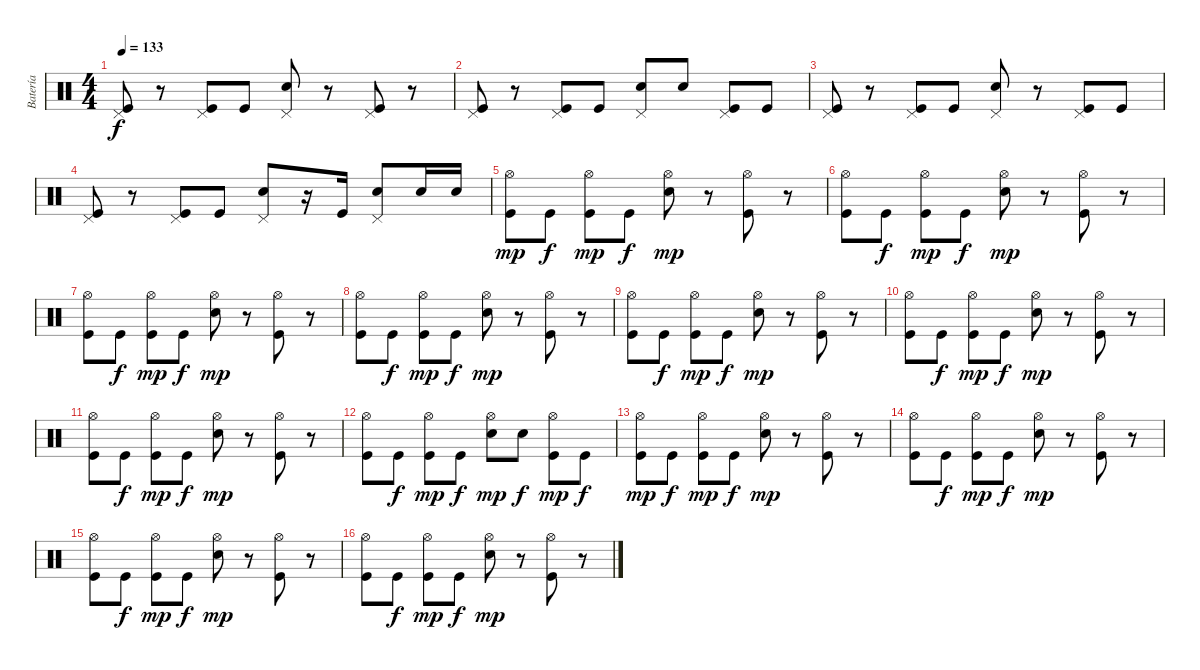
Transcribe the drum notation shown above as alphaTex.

\track ("Batería" "Batería") {instrument percussion}
\staff {score}
\articulation defaults
\ts (4 4)
\tempo 133
\clef neutral
\ks c
("Pedal Hi-Hat (hit)" "Kick (hit)").8{dy f} r.8 ("Pedal Hi-Hat (hit)" "Kick (hit)").8 "Kick (hit)".8 ("Pedal Hi-Hat (hit)" "Snare (hit) 2").8 r.8 ("Pedal Hi-Hat (hit)" "Kick (hit)").8 r.8 |
("Pedal Hi-Hat (hit)" "Kick (hit)").8 r.8 ("Pedal Hi-Hat (hit)" "Kick (hit)").8 "Kick (hit)".8 ("Pedal Hi-Hat (hit)" "Snare (hit) 2").8 "Snare (hit) 2".8 ("Pedal Hi-Hat (hit)" "Kick (hit)").8 "Kick (hit)".8 |
("Pedal Hi-Hat (hit)" "Kick (hit)").8 r.8 ("Pedal Hi-Hat (hit)" "Kick (hit)").8 "Kick (hit)".8 ("Pedal Hi-Hat (hit)" "Snare (hit) 2").8 r.8 ("Pedal Hi-Hat (hit)" "Kick (hit)").8 "Kick (hit)".8 |
("Pedal Hi-Hat (hit)" "Kick (hit)").8 r.8 ("Pedal Hi-Hat (hit)" "Kick (hit)").8 "Kick (hit)".8 ("Pedal Hi-Hat (hit)" "Snare (hit) 2").8 r.16 "Kick (hit)".16 ("Pedal Hi-Hat (hit)" "Snare (hit) 2").8 "Snare (hit) 2".16 "Snare (hit) 2".16 |
("Hi-Hat (open)" "Kick (hit)").8{dy mp} "Kick (hit)".8{dy f} ("Hi-Hat (open)" "Kick (hit)").8{dy mp} "Kick (hit)".8{dy f} ("Hi-Hat (open)" "Snare (hit) 2").8{dy mp} r.8 ("Hi-Hat (open)" "Kick (hit)").8 r.8 |
("Hi-Hat (open)" "Kick (hit)").8 "Kick (hit)".8{dy f} ("Hi-Hat (open)" "Kick (hit)").8{dy mp} "Kick (hit)".8{dy f} ("Hi-Hat (open)" "Snare (hit) 2").8{dy mp} r.8 ("Hi-Hat (open)" "Kick (hit)").8 r.8 |
("Hi-Hat (open)" "Kick (hit)").8 "Kick (hit)".8{dy f} ("Hi-Hat (open)" "Kick (hit)").8{dy mp} "Kick (hit)".8{dy f} ("Hi-Hat (open)" "Snare (hit) 2").8{dy mp} r.8 ("Hi-Hat (open)" "Kick (hit)").8 r.8 |
("Hi-Hat (open)" "Kick (hit)").8 "Kick (hit)".8{dy f} ("Hi-Hat (open)" "Kick (hit)").8{dy mp} "Kick (hit)".8{dy f} ("Hi-Hat (open)" "Snare (hit) 2").8{dy mp} r.8 ("Hi-Hat (open)" "Kick (hit)").8 r.8 |
("Hi-Hat (open)" "Kick (hit)").8 "Kick (hit)".8{dy f} ("Hi-Hat (open)" "Kick (hit)").8{dy mp} "Kick (hit)".8{dy f} ("Hi-Hat (open)" "Snare (hit) 2").8{dy mp} r.8 ("Hi-Hat (open)" "Kick (hit)").8 r.8 |
("Hi-Hat (open)" "Kick (hit)").8 "Kick (hit)".8{dy f} ("Hi-Hat (open)" "Kick (hit)").8{dy mp} "Kick (hit)".8{dy f} ("Hi-Hat (open)" "Snare (hit) 2").8{dy mp} r.8 ("Hi-Hat (open)" "Kick (hit)").8 r.8 |
("Hi-Hat (open)" "Kick (hit)").8 "Kick (hit)".8{dy f} ("Hi-Hat (open)" "Kick (hit)").8{dy mp} "Kick (hit)".8{dy f} ("Hi-Hat (open)" "Snare (hit) 2").8{dy mp} r.8 ("Hi-Hat (open)" "Kick (hit)").8 r.8 |
("Hi-Hat (open)" "Kick (hit)").8 "Kick (hit)".8{dy f} ("Hi-Hat (open)" "Kick (hit)").8{dy mp} "Kick (hit)".8{dy f} ("Hi-Hat (open)" "Snare (hit) 2").8{dy mp} "Snare (hit) 2".8{dy f} ("Hi-Hat (open)" "Kick (hit)").8{dy mp} "Kick (hit)".8{dy f} |
("Hi-Hat (open)" "Kick (hit)").8{dy mp} "Kick (hit)".8{dy f} ("Hi-Hat (open)" "Kick (hit)").8{dy mp} "Kick (hit)".8{dy f} ("Hi-Hat (open)" "Snare (hit) 2").8{dy mp} r.8 ("Hi-Hat (open)" "Kick (hit)").8 r.8 |
("Hi-Hat (open)" "Kick (hit)").8 "Kick (hit)".8{dy f} ("Hi-Hat (open)" "Kick (hit)").8{dy mp} "Kick (hit)".8{dy f} ("Hi-Hat (open)" "Snare (hit) 2").8{dy mp} r.8 ("Hi-Hat (open)" "Kick (hit)").8 r.8 |
("Hi-Hat (open)" "Kick (hit)").8 "Kick (hit)".8{dy f} ("Hi-Hat (open)" "Kick (hit)").8{dy mp} "Kick (hit)".8{dy f} ("Hi-Hat (open)" "Snare (hit) 2").8{dy mp} r.8 ("Hi-Hat (open)" "Kick (hit)").8 r.8 |
("Hi-Hat (open)" "Kick (hit)").8 "Kick (hit)".8{dy f} ("Hi-Hat (open)" "Kick (hit)").8{dy mp} "Kick (hit)".8{dy f} ("Hi-Hat (open)" "Snare (hit) 2").8{dy mp} r.8 ("Hi-Hat (open)" "Kick (hit)").8 r.8
